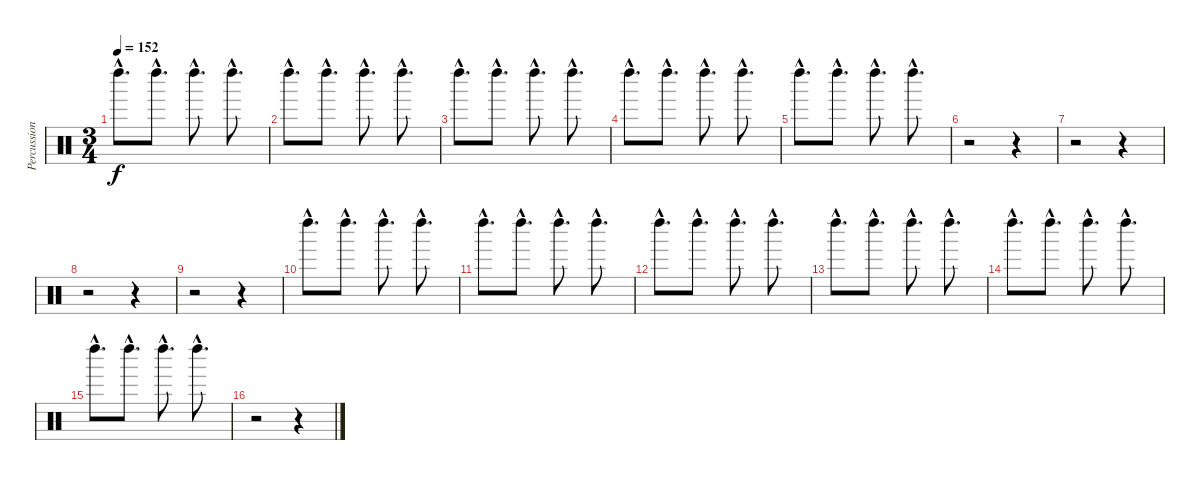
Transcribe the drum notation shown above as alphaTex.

\track ("Percussion" "Percussion") {instrument percussion}
\staff {score}
\articulation defaults
\ts (3 4)
\tempo 152
\clef neutral
\ks c "Left Maraca (hit)"{hac}.8{d dy f} "Left Maraca (hit)"{hac}.8{d} "Left Maraca (hit)"{hac}.8{d} "Left Maraca (hit)"{hac}.8{d}
|
"Left Maraca (hit)"{hac}.8{d} "Left Maraca (hit)"{hac}.8{d} "Left Maraca (hit)"{hac}.8{d} "Left Maraca (hit)"{hac}.8{d} |
"Left Maraca (hit)"{hac}.8{d} "Left Maraca (hit)"{hac}.8{d} "Left Maraca (hit)"{hac}.8{d} "Left Maraca (hit)"{hac}.8{d} |
"Left Maraca (hit)"{hac}.8{d} "Left Maraca (hit)"{hac}.8{d} "Left Maraca (hit)"{hac}.8{d} "Left Maraca (hit)"{hac}.8{d} |
"Left Maraca (hit)"{hac}.8{d} "Left Maraca (hit)"{hac}.8{d} "Left Maraca (hit)"{hac}.8{d} "Left Maraca (hit)"{hac}.8{d} |
r.2 r.4 |
r.2 r.4 |
r.2 r.4 |
r.2 r.4 |
"Left Maraca (hit)"{hac}.8{d} "Left Maraca (hit)"{hac}.8{d} "Left Maraca (hit)"{hac}.8{d} "Left Maraca (hit)"{hac}.8{d} |
"Left Maraca (hit)"{hac}.8{d} "Left Maraca (hit)"{hac}.8{d} "Left Maraca (hit)"{hac}.8{d} "Left Maraca (hit)"{hac}.8{d} |
"Left Maraca (hit)"{hac}.8{d} "Left Maraca (hit)"{hac}.8{d} "Left Maraca (hit)"{hac}.8{d} "Left Maraca (hit)"{hac}.8{d} |
"Left Maraca (hit)"{hac}.8{d} "Left Maraca (hit)"{hac}.8{d} "Left Maraca (hit)"{hac}.8{d} "Left Maraca (hit)"{hac}.8{d} |
"Left Maraca (hit)"{hac}.8{d} "Left Maraca (hit)"{hac}.8{d} "Left Maraca (hit)"{hac}.8{d} "Left Maraca (hit)"{hac}.8{d} |
"Left Maraca (hit)"{hac}.8{d} "Left Maraca (hit)"{hac}.8{d} "Left Maraca (hit)"{hac}.8{d} "Left Maraca (hit)"{hac}.8{d} |
r.2 r.4
